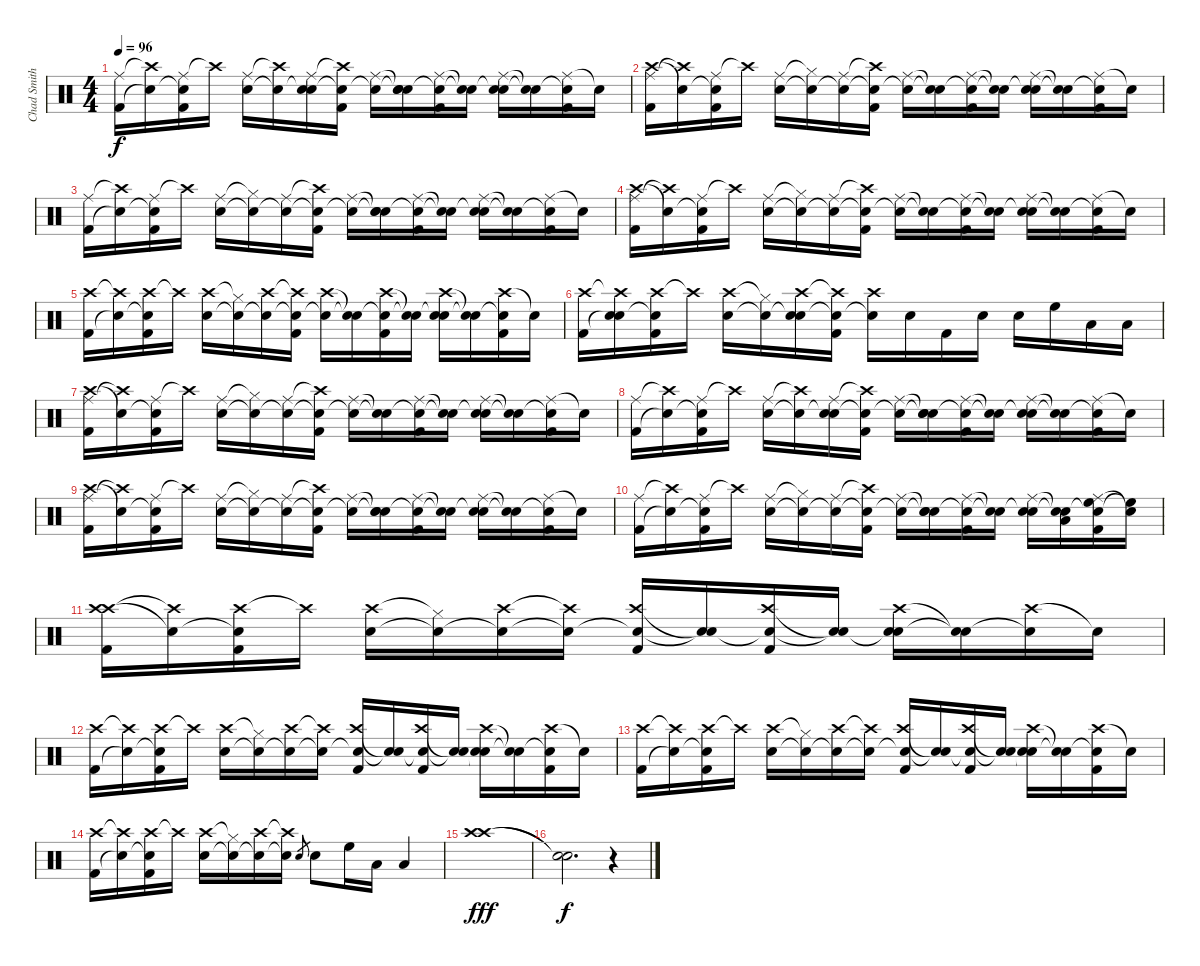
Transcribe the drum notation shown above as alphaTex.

\track ("Chad Smith" "Chad Smith") {mute instrument percussion}
\staff {score}
\articulation defaults
\ts (4 4)
\tempo 96
\clef neutral
\ks c
("Ride (middle)" "Kick (hit) 2").16{dy f} ("Crash high (hit)"{t} "Snare (hit)"{t}).16 ("Ride (middle)" "Snare (hit)"{t} "Kick (hit) 2").16 "Crash high (hit)"{t}.16 ("Ride (middle)" "Snare (hit) 2").16 ("Crash high (hit)"{t} "Snare (hit)"{t}).16 ("Ride (middle)" "Snare (hit)"{t} "Snare (hit) 2").16 ("Crash high (hit)"{t} "Snare (hit)"{t} "Kick (hit) 2").16 ("Ride (middle)" "Snare (hit)"{t}).16 ("Snare (hit)"{t} "Snare (hit)"{t} "Snare (hit) 2").16 ("Ride (middle)" "Snare (hit)"{t} "Kick (hit) 2").16 ("Snare (hit)"{t} "Snare (hit)"{t}).16 ("Ride (middle)" "Snare (hit)"{t} "Snare (hit) 2").16 ("Snare (hit)"{t} "Snare (hit)"{t}).16 ("Ride (middle)" "Snare (hit)"{t} "Kick (hit) 2").16 "Snare (hit)"{t}.16 |
("Ride (middle)" "Crash high (hit)" "Kick (hit) 2").16 ("Crash high (hit)"{t} "Snare (hit)"{t}).16 ("Ride (middle)" "Snare (hit)"{t} "Kick (hit) 2").16 "Crash high (hit)"{t}.16 ("Ride (middle)" "Snare (hit) 2").16 ("Hi-Hat (closed)"{t} "Snare (hit)"{t}).16 ("Ride (middle)" "Snare (hit)"{t}).16 ("Crash high (hit)"{t} "Snare (hit)"{t} "Kick (hit) 2").16 ("Ride (middle)" "Snare (hit)"{t}).16 ("Snare (hit)"{t} "Snare (hit)"{t}).16 ("Ride (middle)" "Snare (hit)"{t} "Kick (hit) 2").16 ("Snare (hit)"{t} "Snare (hit)"{t}).16 ("Ride (middle)" "Snare (hit)"{t} "Snare (hit) 2").16 ("Snare (hit)"{t} "Snare (hit)"{t}).16 ("Ride (middle)" "Snare (hit)"{t} "Kick (hit) 2").16 "Snare (hit)"{t}.16 |
("Ride (middle)" "Kick (hit) 2").16 ("Crash high (hit)"{t} "Snare (hit)"{t}).16 ("Ride (middle)" "Snare (hit)"{t} "Kick (hit) 2").16 "Crash high (hit)"{t}.16 ("Ride (middle)" "Snare (hit) 2").16 ("Hi-Hat (closed)"{t} "Snare (hit)"{t}).16 ("Ride (middle)" "Snare (hit)"{t}).16 ("Crash high (hit)"{t} "Snare (hit)"{t} "Kick (hit) 2").16 ("Ride (middle)" "Snare (hit)"{t}).16 ("Snare (hit)"{t} "Snare (hit)"{t} "Snare (hit) 2").16 ("Ride (middle)" "Snare (hit)"{t} "Kick (hit) 2").16 ("Snare (hit)"{t} "Snare (hit)"{t}).16 ("Ride (middle)" "Snare (hit)"{t} "Snare (hit) 2").16 ("Snare (hit)"{t} "Snare (hit)"{t}).16 ("Ride (middle)" "Snare (hit)"{t} "Kick (hit) 2").16 "Snare (hit)"{t}.16 |
("Ride (middle)" "Crash high (hit)" "Kick (hit) 2").16 ("Crash high (hit)"{t} "Snare (hit)"{t}).16 ("Ride (middle)" "Snare (hit)"{t} "Kick (hit) 2").16 "Crash high (hit)"{t}.16 ("Ride (middle)" "Snare (hit) 2").16 ("Hi-Hat (closed)"{t} "Snare (hit)"{t}).16 ("Ride (middle)" "Snare (hit)"{t}).16 ("Crash high (hit)"{t} "Snare (hit)"{t} "Kick (hit) 2").16 ("Ride (middle)" "Snare (hit)"{t}).16 ("Snare (hit)"{t} "Snare (hit)"{t}).16 ("Ride (middle)" "Snare (hit)"{t} "Kick (hit) 2").16 ("Snare (hit)"{t} "Snare (hit)"{t}).16 ("Ride (middle)" "Snare (hit)"{t} "Snare (hit) 2").16 ("Snare (hit)"{t} "Snare (hit)"{t}).16 ("Ride (middle)" "Snare (hit)"{t} "Kick (hit) 2").16 "Snare (hit)"{t}.16 |
("Crash high (hit)" "Kick (hit) 2").16 ("Crash high (hit)"{t} "Snare (hit)"{t}).16 ("Crash high (hit)" "Snare (hit)"{t} "Kick (hit) 2").16 "Crash high (hit)"{t}.16 ("Crash high (hit)" "Snare (hit) 2").16 ("Hi-Hat (closed)"{t} "Snare (hit)"{t}).16 ("Crash high (hit)" "Snare (hit)"{t}).16 ("Crash high (hit)"{t} "Snare (hit)"{t} "Kick (hit) 2").16 ("Crash high (hit)" "Snare (hit)"{t}).16 ("Snare (hit)"{t} "Snare (hit)"{t}).16 ("Crash high (hit)" "Snare (hit)"{t} "Kick (hit) 2").16 ("Snare (hit)"{t} "Snare (hit)"{t}).16 ("Crash high (hit)" "Snare (hit)"{t} "Snare (hit) 2").16 ("Snare (hit)"{t} "Snare (hit)"{t}).16 ("Crash high (hit)" "Snare (hit)"{t} "Kick (hit) 2").16 "Snare (hit)"{t}.16 |
("Crash high (hit)" "Kick (hit) 2").16 ("Crash high (hit)"{t} "Snare (hit)"{t} "Snare (hit) 2").16 ("Crash high (hit)" "Snare (hit)"{t} "Kick (hit) 2").16 "Crash high (hit)"{t}.16 ("Crash high (hit)" "Snare (hit) 2").16 ("Hi-Hat (closed)"{t} "Snare (hit)"{t}).16 ("Crash high (hit)" "Snare (hit)"{t} "Snare (hit) 2").16 ("Crash high (hit)"{t} "Snare (hit)"{t} "Kick (hit) 2").16 ("Crash high (hit)" "Snare (hit)"{t}).16 "Snare (hit) 2".16 "Kick (hit) 2".16 "Snare (hit) 2".16 "Snare (hit) 2".16 "High Floor Tom (hit)".16 "Low Floor Tom (hit)".16 "Low Floor Tom (hit)".16 |
("Ride (middle)" "Crash high (hit)" "Kick (hit) 2").16 ("Crash high (hit)"{t} "Snare (hit)"{t}).16 ("Ride (middle)" "Snare (hit)"{t} "Kick (hit) 2").16 "Crash high (hit)"{t}.16 ("Ride (middle)" "Snare (hit) 2").16 ("Hi-Hat (closed)"{t} "Snare (hit)"{t}).16 ("Ride (middle)" "Snare (hit)"{t}).16 ("Crash high (hit)"{t} "Snare (hit)"{t} "Kick (hit) 2").16 ("Ride (middle)" "Snare (hit)"{t}).16 ("Snare (hit)"{t} "Snare (hit)"{t}).16 ("Ride (middle)" "Snare (hit)"{t} "Kick (hit) 2").16 ("Snare (hit)"{t} "Snare (hit)"{t}).16 ("Ride (middle)" "Snare (hit)"{t} "Snare (hit) 2").16 ("Snare (hit)"{t} "Snare (hit)"{t}).16 ("Ride (middle)" "Snare (hit)"{t} "Kick (hit) 2").16 "Snare (hit)"{t}.16 |
("Ride (middle)" "Kick (hit) 2").16 ("Crash high (hit)"{t} "Snare (hit)"{t}).16 ("Ride (middle)" "Snare (hit)"{t} "Kick (hit) 2").16 "Crash high (hit)"{t}.16 ("Ride (middle)" "Snare (hit) 2").16 ("Crash high (hit)"{t} "Snare (hit)"{t}).16 ("Ride (middle)" "Snare (hit)"{t} "Snare (hit) 2").16 ("Crash high (hit)"{t} "Snare (hit)"{t} "Kick (hit) 2").16 ("Ride (middle)" "Snare (hit)"{t}).16 ("Snare (hit)"{t} "Snare (hit)"{t} "Snare (hit) 2").16 ("Ride (middle)" "Snare (hit)"{t} "Kick (hit) 2").16 ("Snare (hit)"{t} "Snare (hit)"{t}).16 ("Ride (middle)" "Snare (hit)"{t} "Snare (hit) 2").16 ("Snare (hit)"{t} "Snare (hit)"{t}).16 ("Ride (middle)" "Snare (hit)"{t} "Kick (hit) 2").16 "Snare (hit)"{t}.16 |
("Ride (middle)" "Crash high (hit)" "Kick (hit) 2").16 ("Crash high (hit)"{t} "Snare (hit)"{t}).16 ("Ride (middle)" "Snare (hit)"{t} "Kick (hit) 2").16 "Crash high (hit)"{t}.16 ("Ride (middle)" "Snare (hit) 2").16 ("Hi-Hat (closed)"{t} "Snare (hit)"{t}).16 ("Ride (middle)" "Snare (hit)"{t}).16 ("Crash high (hit)"{t} "Snare (hit)"{t} "Kick (hit) 2").16 ("Ride (middle)" "Snare (hit)"{t}).16 ("Snare (hit)"{t} "Snare (hit)"{t} "Snare (hit) 2").16 ("Ride (middle)" "Snare (hit)"{t} "Kick (hit) 2").16 ("Snare (hit)"{t} "Snare (hit)"{t}).16 ("Ride (middle)" "Snare (hit)"{t} "Snare (hit) 2").16 ("Snare (hit)"{t} "Snare (hit)"{t}).16 ("Ride (middle)" "Snare (hit)"{t} "Kick (hit) 2").16 "Snare (hit)"{t}.16 |
("Ride (middle)" "Kick (hit) 2").16 ("Crash high (hit)"{t} "Snare (hit)"{t}).16 ("Ride (middle)" "Snare (hit)"{t} "Kick (hit) 2").16 "Crash high (hit)"{t}.16 ("Ride (middle)" "Snare (hit) 2").16 ("Hi-Hat (closed)"{t} "Snare (hit)"{t}).16 ("Ride (middle)" "Snare (hit)"{t}).16 ("Crash high (hit)"{t} "Snare (hit)"{t} "Kick (hit) 2").16 ("Ride (middle)" "Snare (hit)"{t}).16 ("Snare (hit)"{t} "Snare (hit)"{t} "Snare (hit) 2").16 ("Ride (middle)" "Snare (hit)"{t} "Kick (hit) 2").16 ("Snare (hit)"{t} "Snare (hit)"{t}).16 ("Ride (middle)" "Snare (hit)"{t} "Snare (hit) 2").16 ("Snare (hit)"{t} "Snare (hit)"{t} "Low Floor Tom (hit)").16 ("Ride (middle)" "Snare (hit)"{t} "High Floor Tom (hit)" "Kick (hit) 2").16 ("Snare (hit)"{t} "High Floor Tom (hit)"{t}).16 |
("Crash high (hit)" "Crash high (hit)" "Kick (hit) 2").16 ("Crash high (hit)"{t} "Snare (hit)"{t}).16 ("Crash high (hit)" "Snare (hit)"{t} "Kick (hit) 2").16 "Crash high (hit)"{t}.16 ("Crash high (hit)" "Snare (hit) 2").16 ("Hi-Hat (closed)"{t} "Snare (hit)"{t}).16 ("Crash high (hit)" "Snare (hit)"{t}).16 ("Crash high (hit)"{t} "Snare (hit)"{t}).16 ("Crash high (hit)" "Snare (hit)"{t} "Kick (hit) 2").16 ("Snare (hit)"{t} "Snare (hit)"{t}).16 ("Crash high (hit)" "Snare (hit)"{t} "Kick (hit) 2").16 ("Snare (hit)"{t} "Snare (hit)"{t}).16 ("Crash high (hit)" "Snare (hit)"{t} "Snare (hit) 2").16 ("Snare (hit)"{t} "Snare (hit)"{t}).16 ("Crash high (hit)" "Snare (hit)"{t}).16 "Snare (hit)"{t}.16 |
("Crash high (hit)" "Kick (hit) 2").16 ("Crash high (hit)"{t} "Snare (hit)"{t}).16 ("Crash high (hit)" "Snare (hit)"{t} "Kick (hit) 2").16 "Crash high (hit)"{t}.16 ("Crash high (hit)" "Snare (hit) 2").16 ("Hi-Hat (closed)"{t} "Snare (hit)"{t}).16 ("Crash high (hit)" "Snare (hit)"{t}).16 ("Crash high (hit)"{t} "Snare (hit)"{t}).16 ("Crash high (hit)" "Snare (hit)"{t} "Kick (hit) 2").16 ("Snare (hit)"{t} "Snare (hit)"{t}).16 ("Crash high (hit)" "Snare (hit)"{t} "Kick (hit) 2").16 ("Snare (hit)"{t} "Snare (hit)"{t}).16 ("Crash high (hit)" "Snare (hit)"{t} "Snare (hit) 2").16 ("Snare (hit)"{t} "Snare (hit)"{t}).16 ("Crash high (hit)" "Snare (hit)"{t} "Kick (hit) 2").16 "Snare (hit)"{t}.16 |
("Crash high (hit)" "Kick (hit) 2").16 ("Crash high (hit)"{t} "Snare (hit)"{t}).16 ("Crash high (hit)" "Snare (hit)"{t} "Kick (hit) 2").16 "Crash high (hit)"{t}.16 ("Crash high (hit)" "Snare (hit) 2").16 ("Hi-Hat (closed)"{t} "Snare (hit)"{t}).16 ("Crash high (hit)" "Snare (hit)"{t}).16 ("Crash high (hit)"{t} "Snare (hit)"{t}).16 ("Crash high (hit)" "Snare (hit)"{t} "Kick (hit) 2").16 ("Snare (hit)"{t} "Snare (hit)"{t}).16 ("Crash high (hit)" "Snare (hit)"{t} "Kick (hit) 2").16 ("Snare (hit)"{t} "Snare (hit)"{t}).16 ("Crash high (hit)" "Snare (hit)"{t} "Snare (hit) 2").16 ("Snare (hit)"{t} "Snare (hit)"{t}).16 ("Crash high (hit)" "Snare (hit)"{t} "Kick (hit) 2").16 "Snare (hit)"{t}.16 |
("Crash high (hit)" "Kick (hit) 2").16 ("Crash high (hit)"{t} "Snare (hit)"{t}).16 ("Crash high (hit)" "Snare (hit)"{t} "Kick (hit) 2").16 "Crash high (hit)"{t}.16 ("Crash high (hit)" "Snare (hit) 2").16 ("Hi-Hat (closed)"{t} "Snare (hit)"{t}).16 ("Crash high (hit)" "Snare (hit)"{t}).16 ("Crash high (hit)"{t} "Snare (hit)"{t}).16 "Snare (hit) 2".8{gr} "Snare (hit) 2".8 "High Floor Tom (hit)".16 "Low Tom (hit)".16 "Low Floor Tom (hit)".4 |
("Crash high (hit)" "Crash high (hit)").1{dy fff} |
("Snare (hit)"{t} "Snare (hit)"{t}).2{d dy f} r.4
